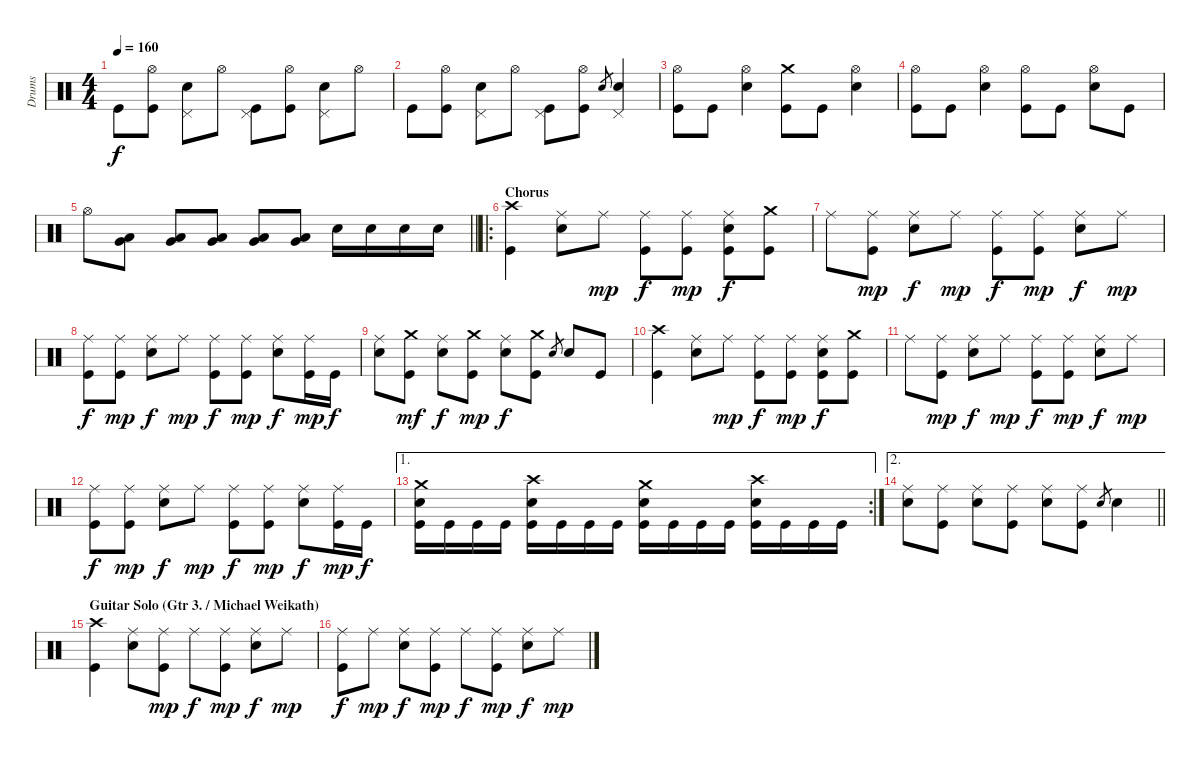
\track ("Drums" "Drums") {instrument percussion}
\staff {score}
\articulation defaults
\ts (4 4)
\tempo 160
\clef neutral
\ks c "Kick (hit)".8{dy f}
("Hi-Hat (open)" "Kick (hit)").8 ("Pedal Hi-Hat (hit)" "Electric Snare (hit)").8 "Hi-Hat (open)".8 ("Pedal Hi-Hat (hit)" "Kick (hit)").8 ("Hi-Hat (open)" "Kick (hit)").8 ("Pedal Hi-Hat (hit)" "Electric Snare (hit)").8 "Hi-Hat (open)".8 |
"Kick (hit)".8 ("Hi-Hat (open)" "Kick (hit)").8 ("Pedal Hi-Hat (hit)" "Electric Snare (hit)").8 "Hi-Hat (open)".8 ("Pedal Hi-Hat (hit)" "Kick (hit)").8 ("Hi-Hat (open)" "Kick (hit)").8 "Electric Snare (hit)".8{gr} ("Pedal Hi-Hat (hit)" "Electric Snare (hit)").4 |
("Hi-Hat (open)" "Kick (hit)").8 "Kick (hit)".8 ("Hi-Hat (open)" "Electric Snare (hit)").4 ("Crash medium (hit)" "Kick (hit)").8 "Kick (hit)".8 ("Hi-Hat (open)" "Electric Snare (hit)").4 |
("Hi-Hat (open)" "Kick (hit)").8 "Kick (hit)".8 ("Hi-Hat (open)" "Electric Snare (hit)").4 ("Hi-Hat (open)" "Kick (hit)").8 "Kick (hit)".8 ("Hi-Hat (open)" "Electric Snare (hit)").8 "Kick (hit)".8 |
\barLineRight lightlight "Hi-Hat (open)".8
("Very Low Tom (hit)" "Low Tom (hit)").8 ("Very Low Tom (hit)" "Low Tom (hit)").8 ("Very Low Tom (hit)" "Low Tom (hit)").8 ("Very Low Tom (hit)" "Low Tom (hit)").8 ("Very Low Tom (hit)" "Low Tom (hit)").8 "Electric Snare (hit)".16 "Electric Snare (hit)".16 "Electric Snare (hit)".16 "Electric Snare (hit)".16 |
\ro
\section ("" "Chorus")
("Crash high (hit)" "Kick (hit)").4 ("Ride (middle)" "Electric Snare (hit)").8 "Ride (middle)".8{dy mp} ("Ride (middle)" "Kick (hit)").8{dy f} ("Ride (middle)" "Kick (hit)").8{dy mp} ("Ride (middle)" "Electric Snare (hit)" "Kick (hit)").8{dy f} ("Crash medium (hit)" "Kick (hit)").8 |
"Ride (middle)".8 ("Ride (middle)" "Kick (hit)").8{dy mp} ("Ride (middle)" "Electric Snare (hit)").8{dy f} "Ride (middle)".8{dy mp} ("Ride (middle)" "Kick (hit)").8{dy f} ("Ride (middle)" "Kick (hit)").8{dy mp} ("Ride (middle)" "Electric Snare (hit)").8{dy f} "Ride (middle)".8{dy mp} |
("Ride (middle)" "Kick (hit)").8{dy f} ("Ride (middle)" "Kick (hit)").8{dy mp} ("Ride (middle)" "Electric Snare (hit)").8{dy f} "Ride (middle)".8{dy mp} ("Ride (middle)" "Kick (hit)").8{dy f} ("Ride (middle)" "Kick (hit)").8{dy mp} ("Ride (middle)" "Electric Snare (hit)").8{dy f} ("Ride (middle)" "Kick (hit)").16{dy mp} "Kick (hit)".16{dy f} |
("Ride (middle)" "Electric Snare (hit)").8 ("Crash medium (hit)" "Kick (hit)").8{dy mf} ("Ride (middle)" "Electric Snare (hit)").8{dy f} ("Crash medium (hit)" "Kick (hit)").8{dy mp} ("Ride (middle)" "Electric Snare (hit)").8{dy f} ("Crash medium (hit)" "Kick (hit)").8 "Electric Snare (hit)".8{gr} "Electric Snare (hit)".8 "Kick (hit)".8 |
("Crash high (hit)" "Kick (hit)").4 ("Ride (middle)" "Electric Snare (hit)").8 "Ride (middle)".8{dy mp} ("Ride (middle)" "Kick (hit)").8{dy f} ("Ride (middle)" "Kick (hit)").8{dy mp} ("Ride (middle)" "Electric Snare (hit)" "Kick (hit)").8{dy f} ("Crash medium (hit)" "Kick (hit)").8 |
"Ride (middle)".8 ("Ride (middle)" "Kick (hit)").8{dy mp} ("Ride (middle)" "Electric Snare (hit)").8{dy f} "Ride (middle)".8{dy mp} ("Ride (middle)" "Kick (hit)").8{dy f} ("Ride (middle)" "Kick (hit)").8{dy mp} ("Ride (middle)" "Electric Snare (hit)").8{dy f} "Ride (middle)".8{dy mp} |
("Ride (middle)" "Kick (hit)").8{dy f} ("Ride (middle)" "Kick (hit)").8{dy mp} ("Ride (middle)" "Electric Snare (hit)").8{dy f} "Ride (middle)".8{dy mp} ("Ride (middle)" "Kick (hit)").8{dy f} ("Ride (middle)" "Kick (hit)").8{dy mp} ("Ride (middle)" "Electric Snare (hit)").8{dy f} ("Ride (middle)" "Kick (hit)").16{dy mp} "Kick (hit)".16{dy f} |
\ae 1
\rc 2
("Crash medium (hit)" "Electric Snare (hit)" "Kick (hit)").16 "Kick (hit)".16 "Kick (hit)".16 "Kick (hit)".16 ("Crash high (hit)" "Electric Snare (hit)" "Kick (hit)").16 "Kick (hit)".16 "Kick (hit)".16 "Kick (hit)".16 ("Crash medium (hit)" "Electric Snare (hit)" "Kick (hit)").16 "Kick (hit)".16 "Kick (hit)".16 "Kick (hit)".16 ("Crash high (hit)" "Electric Snare (hit)" "Kick (hit)").16 "Kick (hit)".16 "Kick (hit)".16 "Kick (hit)".16 |
\ae 2
\barLineRight lightlight
("Ride (middle)" "Electric Snare (hit)").8 ("Ride (middle)" "Kick (hit)").8 ("Ride (middle)" "Electric Snare (hit)").8 ("Ride (middle)" "Kick (hit)").8 ("Ride (middle)" "Electric Snare (hit)").8 ("Ride (middle)" "Kick (hit)").8 "Electric Snare (hit)".8{gr} "Electric Snare (hit)".4 |
\section ("" "Guitar Solo (Gtr 3. / Michael Weikath)")
("Crash high (hit)" "Kick (hit)").4 ("Ride (middle)" "Electric Snare (hit)").8 ("Ride (middle)" "Kick (hit)").8{dy mp} "Ride (middle)".8{dy f} ("Ride (middle)" "Kick (hit)").8{dy mp} ("Ride (middle)" "Electric Snare (hit)").8{dy f} "Ride (middle)".8{dy mp} |
("Ride (middle)" "Kick (hit)").8{dy f} "Ride (middle)".8{dy mp} ("Ride (middle)" "Electric Snare (hit)").8{dy f} ("Ride (middle)" "Kick (hit)").8{dy mp} "Ride (middle)".8{dy f} ("Ride (middle)" "Kick (hit)").8{dy mp} ("Ride (middle)" "Electric Snare (hit)").8{dy f} "Ride (middle)".8{dy mp}
